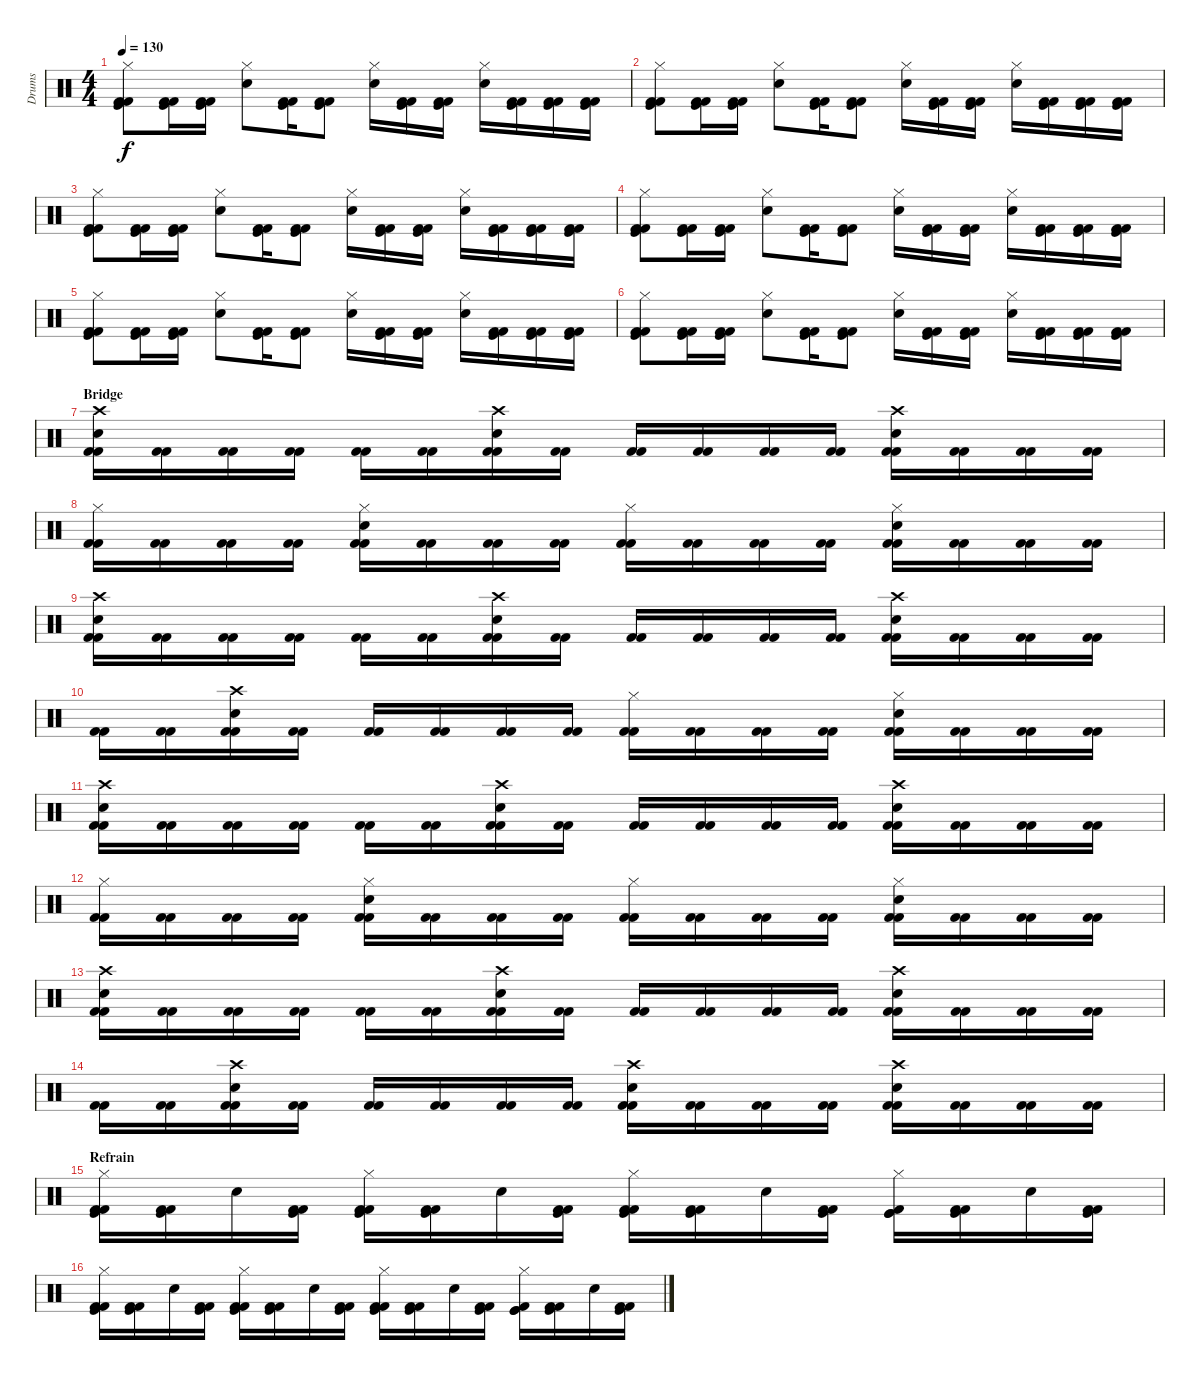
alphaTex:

\track ("Drums" "Drums") {instrument percussion}
\staff {score}
\articulation defaults
\ts (4 4)
\tempo 130
\clef neutral
\ks c
("Hi-Hat (closed)" "Kick (hit)" "Kick (hit) 2" "Kick (hit) 2").8{dy f} ("Kick (hit)" "Kick (hit) 2" "Kick (hit) 2").16 ("Kick (hit)" "Kick (hit) 2" "Kick (hit) 2").16 ("Hi-Hat (closed)" "Electric Snare (hit)").8 ("Kick (hit)" "Kick (hit) 2" "Kick (hit) 2").16 ("Kick (hit)" "Kick (hit) 2" "Kick (hit) 2").8 ("Hi-Hat (closed)" "Electric Snare (hit)").16 ("Kick (hit)" "Kick (hit) 2" "Kick (hit) 2").16 ("Kick (hit)" "Kick (hit) 2" "Kick (hit) 2").16 ("Hi-Hat (closed)" "Electric Snare (hit)").16 ("Kick (hit)" "Kick (hit) 2" "Kick (hit) 2").16 ("Kick (hit)" "Kick (hit) 2" "Kick (hit) 2").16 ("Kick (hit)" "Kick (hit) 2" "Kick (hit) 2").16 |
("Hi-Hat (closed)" "Kick (hit)" "Kick (hit) 2" "Kick (hit) 2").8 ("Kick (hit)" "Kick (hit) 2" "Kick (hit) 2").16 ("Kick (hit)" "Kick (hit) 2" "Kick (hit) 2").16 ("Hi-Hat (closed)" "Electric Snare (hit)").8 ("Kick (hit)" "Kick (hit) 2" "Kick (hit) 2").16 ("Kick (hit)" "Kick (hit) 2" "Kick (hit) 2").8 ("Hi-Hat (closed)" "Electric Snare (hit)").16 ("Kick (hit)" "Kick (hit) 2" "Kick (hit) 2").16 ("Kick (hit)" "Kick (hit) 2" "Kick (hit) 2").16 ("Hi-Hat (closed)" "Electric Snare (hit)").16 ("Kick (hit)" "Kick (hit) 2" "Kick (hit) 2").16 ("Kick (hit)" "Kick (hit) 2" "Kick (hit) 2").16 ("Kick (hit)" "Kick (hit) 2" "Kick (hit) 2").16 |
("Hi-Hat (closed)" "Kick (hit)" "Kick (hit) 2" "Kick (hit) 2").8 ("Kick (hit)" "Kick (hit) 2" "Kick (hit) 2").16 ("Kick (hit)" "Kick (hit) 2" "Kick (hit) 2").16 ("Hi-Hat (closed)" "Electric Snare (hit)").8 ("Kick (hit)" "Kick (hit) 2" "Kick (hit) 2").16 ("Kick (hit)" "Kick (hit) 2" "Kick (hit) 2").8 ("Hi-Hat (closed)" "Electric Snare (hit)").16 ("Kick (hit)" "Kick (hit) 2" "Kick (hit) 2").16 ("Kick (hit)" "Kick (hit) 2" "Kick (hit) 2").16 ("Hi-Hat (closed)" "Electric Snare (hit)").16 ("Kick (hit)" "Kick (hit) 2" "Kick (hit) 2").16 ("Kick (hit)" "Kick (hit) 2" "Kick (hit) 2").16 ("Kick (hit)" "Kick (hit) 2" "Kick (hit) 2").16 |
("Hi-Hat (closed)" "Kick (hit)" "Kick (hit) 2" "Kick (hit) 2").8 ("Kick (hit)" "Kick (hit) 2" "Kick (hit) 2").16 ("Kick (hit)" "Kick (hit) 2" "Kick (hit) 2").16 ("Hi-Hat (closed)" "Electric Snare (hit)").8 ("Kick (hit)" "Kick (hit) 2" "Kick (hit) 2").16 ("Kick (hit)" "Kick (hit) 2" "Kick (hit) 2").8 ("Hi-Hat (closed)" "Electric Snare (hit)").16 ("Kick (hit)" "Kick (hit) 2" "Kick (hit) 2").16 ("Kick (hit)" "Kick (hit) 2" "Kick (hit) 2").16 ("Hi-Hat (closed)" "Electric Snare (hit)").16 ("Kick (hit)" "Kick (hit) 2" "Kick (hit) 2").16 ("Kick (hit)" "Kick (hit) 2" "Kick (hit) 2").16 ("Kick (hit)" "Kick (hit) 2" "Kick (hit) 2").16 |
("Hi-Hat (closed)" "Kick (hit)" "Kick (hit) 2" "Kick (hit) 2").8 ("Kick (hit)" "Kick (hit) 2" "Kick (hit) 2").16 ("Kick (hit)" "Kick (hit) 2" "Kick (hit) 2").16 ("Hi-Hat (closed)" "Electric Snare (hit)").8 ("Kick (hit)" "Kick (hit) 2" "Kick (hit) 2").16 ("Kick (hit)" "Kick (hit) 2" "Kick (hit) 2").8 ("Hi-Hat (closed)" "Electric Snare (hit)").16 ("Kick (hit)" "Kick (hit) 2" "Kick (hit) 2").16 ("Kick (hit)" "Kick (hit) 2" "Kick (hit) 2").16 ("Hi-Hat (closed)" "Electric Snare (hit)").16 ("Kick (hit)" "Kick (hit) 2" "Kick (hit) 2").16 ("Kick (hit)" "Kick (hit) 2" "Kick (hit) 2").16 ("Kick (hit)" "Kick (hit) 2" "Kick (hit) 2").16 |
("Hi-Hat (closed)" "Kick (hit)" "Kick (hit) 2" "Kick (hit) 2").8 ("Kick (hit)" "Kick (hit) 2" "Kick (hit) 2").16 ("Kick (hit)" "Kick (hit) 2" "Kick (hit) 2").16 ("Hi-Hat (closed)" "Electric Snare (hit)").8 ("Kick (hit)" "Kick (hit) 2" "Kick (hit) 2").16 ("Kick (hit)" "Kick (hit) 2" "Kick (hit) 2").8 ("Hi-Hat (closed)" "Electric Snare (hit)").16 ("Kick (hit)" "Kick (hit) 2" "Kick (hit) 2").16 ("Kick (hit)" "Kick (hit) 2" "Kick (hit) 2").16 ("Hi-Hat (closed)" "Electric Snare (hit)").16 ("Kick (hit)" "Kick (hit) 2" "Kick (hit) 2").16 ("Kick (hit)" "Kick (hit) 2" "Kick (hit) 2").16 ("Kick (hit)" "Kick (hit) 2" "Kick (hit) 2").16 |
\section ("" "Bridge")
("Crash high (hit)" "Electric Snare (hit)" "Kick (hit) 2" "Kick (hit) 2").16 ("Kick (hit) 2" "Kick (hit) 2").16 ("Kick (hit) 2" "Kick (hit) 2").16 ("Kick (hit) 2" "Kick (hit) 2").16 ("Kick (hit) 2" "Kick (hit) 2").16 ("Kick (hit) 2" "Kick (hit) 2").16 ("Crash high (hit)" "Electric Snare (hit)" "Kick (hit) 2" "Kick (hit) 2").16 ("Kick (hit) 2" "Kick (hit) 2").16 ("Kick (hit) 2" "Kick (hit) 2").16 ("Kick (hit) 2" "Kick (hit) 2").16 ("Kick (hit) 2" "Kick (hit) 2").16 ("Kick (hit) 2" "Kick (hit) 2").16 ("Crash high (hit)" "Electric Snare (hit)" "Kick (hit) 2" "Kick (hit) 2").16 ("Kick (hit) 2" "Kick (hit) 2").16 ("Kick (hit) 2" "Kick (hit) 2").16 ("Kick (hit) 2" "Kick (hit) 2").16 |
("Hi-Hat (closed)" "Kick (hit) 2" "Kick (hit) 2").16 ("Kick (hit) 2" "Kick (hit) 2").16 ("Kick (hit) 2" "Kick (hit) 2").16 ("Kick (hit) 2" "Kick (hit) 2").16 ("Hi-Hat (closed)" "Electric Snare (hit)" "Kick (hit) 2" "Kick (hit) 2").16 ("Kick (hit) 2" "Kick (hit) 2").16 ("Kick (hit) 2" "Kick (hit) 2").16 ("Kick (hit) 2" "Kick (hit) 2").16 ("Hi-Hat (closed)" "Kick (hit) 2" "Kick (hit) 2").16 ("Kick (hit) 2" "Kick (hit) 2").16 ("Kick (hit) 2" "Kick (hit) 2").16 ("Kick (hit) 2" "Kick (hit) 2").16 ("Hi-Hat (closed)" "Electric Snare (hit)" "Kick (hit) 2" "Kick (hit) 2").16 ("Kick (hit) 2" "Kick (hit) 2").16 ("Kick (hit) 2" "Kick (hit) 2").16 ("Kick (hit) 2" "Kick (hit) 2").16 |
("Crash high (hit)" "Electric Snare (hit)" "Kick (hit) 2" "Kick (hit) 2").16 ("Kick (hit) 2" "Kick (hit) 2").16 ("Kick (hit) 2" "Kick (hit) 2").16 ("Kick (hit) 2" "Kick (hit) 2").16 ("Kick (hit) 2" "Kick (hit) 2").16 ("Kick (hit) 2" "Kick (hit) 2").16 ("Crash high (hit)" "Electric Snare (hit)" "Kick (hit) 2" "Kick (hit) 2").16 ("Kick (hit) 2" "Kick (hit) 2").16 ("Kick (hit) 2" "Kick (hit) 2").16 ("Kick (hit) 2" "Kick (hit) 2").16 ("Kick (hit) 2" "Kick (hit) 2").16 ("Kick (hit) 2" "Kick (hit) 2").16 ("Crash high (hit)" "Electric Snare (hit)" "Kick (hit) 2" "Kick (hit) 2").16 ("Kick (hit) 2" "Kick (hit) 2").16 ("Kick (hit) 2" "Kick (hit) 2").16 ("Kick (hit) 2" "Kick (hit) 2").16 |
("Kick (hit) 2" "Kick (hit) 2").16 ("Kick (hit) 2" "Kick (hit) 2").16 ("Crash high (hit)" "Electric Snare (hit)" "Kick (hit) 2" "Kick (hit) 2").16 ("Kick (hit) 2" "Kick (hit) 2").16 ("Kick (hit) 2" "Kick (hit) 2").16 ("Kick (hit) 2" "Kick (hit) 2").16 ("Kick (hit) 2" "Kick (hit) 2").16 ("Kick (hit) 2" "Kick (hit) 2").16 ("Hi-Hat (closed)" "Kick (hit) 2" "Kick (hit) 2").16 ("Kick (hit) 2" "Kick (hit) 2").16 ("Kick (hit) 2" "Kick (hit) 2").16 ("Kick (hit) 2" "Kick (hit) 2").16 ("Hi-Hat (closed)" "Electric Snare (hit)" "Kick (hit) 2" "Kick (hit) 2").16 ("Kick (hit) 2" "Kick (hit) 2").16 ("Kick (hit) 2" "Kick (hit) 2").16 ("Kick (hit) 2" "Kick (hit) 2").16 |
("Crash high (hit)" "Electric Snare (hit)" "Kick (hit) 2" "Kick (hit) 2").16 ("Kick (hit) 2" "Kick (hit) 2").16 ("Kick (hit) 2" "Kick (hit) 2").16 ("Kick (hit) 2" "Kick (hit) 2").16 ("Kick (hit) 2" "Kick (hit) 2").16 ("Kick (hit) 2" "Kick (hit) 2").16 ("Crash high (hit)" "Electric Snare (hit)" "Kick (hit) 2" "Kick (hit) 2").16 ("Kick (hit) 2" "Kick (hit) 2").16 ("Kick (hit) 2" "Kick (hit) 2").16 ("Kick (hit) 2" "Kick (hit) 2").16 ("Kick (hit) 2" "Kick (hit) 2").16 ("Kick (hit) 2" "Kick (hit) 2").16 ("Crash high (hit)" "Electric Snare (hit)" "Kick (hit) 2" "Kick (hit) 2").16 ("Kick (hit) 2" "Kick (hit) 2").16 ("Kick (hit) 2" "Kick (hit) 2").16 ("Kick (hit) 2" "Kick (hit) 2").16 |
("Hi-Hat (closed)" "Kick (hit) 2" "Kick (hit) 2").16 ("Kick (hit) 2" "Kick (hit) 2").16 ("Kick (hit) 2" "Kick (hit) 2").16 ("Kick (hit) 2" "Kick (hit) 2").16 ("Hi-Hat (closed)" "Electric Snare (hit)" "Kick (hit) 2" "Kick (hit) 2").16 ("Kick (hit) 2" "Kick (hit) 2").16 ("Kick (hit) 2" "Kick (hit) 2").16 ("Kick (hit) 2" "Kick (hit) 2").16 ("Hi-Hat (closed)" "Kick (hit) 2" "Kick (hit) 2").16 ("Kick (hit) 2" "Kick (hit) 2").16 ("Kick (hit) 2" "Kick (hit) 2").16 ("Kick (hit) 2" "Kick (hit) 2").16 ("Hi-Hat (closed)" "Electric Snare (hit)" "Kick (hit) 2" "Kick (hit) 2").16 ("Kick (hit) 2" "Kick (hit) 2").16 ("Kick (hit) 2" "Kick (hit) 2").16 ("Kick (hit) 2" "Kick (hit) 2").16 |
("Crash high (hit)" "Electric Snare (hit)" "Kick (hit) 2" "Kick (hit) 2").16 ("Kick (hit) 2" "Kick (hit) 2").16 ("Kick (hit) 2" "Kick (hit) 2").16 ("Kick (hit) 2" "Kick (hit) 2").16 ("Kick (hit) 2" "Kick (hit) 2").16 ("Kick (hit) 2" "Kick (hit) 2").16 ("Crash high (hit)" "Electric Snare (hit)" "Kick (hit) 2" "Kick (hit) 2").16 ("Kick (hit) 2" "Kick (hit) 2").16 ("Kick (hit) 2" "Kick (hit) 2").16 ("Kick (hit) 2" "Kick (hit) 2").16 ("Kick (hit) 2" "Kick (hit) 2").16 ("Kick (hit) 2" "Kick (hit) 2").16 ("Crash high (hit)" "Electric Snare (hit)" "Kick (hit) 2" "Kick (hit) 2").16 ("Kick (hit) 2" "Kick (hit) 2").16 ("Kick (hit) 2" "Kick (hit) 2").16 ("Kick (hit) 2" "Kick (hit) 2").16 |
("Kick (hit) 2" "Kick (hit) 2").16 ("Kick (hit) 2" "Kick (hit) 2").16 ("Crash high (hit)" "Electric Snare (hit)" "Kick (hit) 2" "Kick (hit) 2").16 ("Kick (hit) 2" "Kick (hit) 2").16 ("Kick (hit) 2" "Kick (hit) 2").16 ("Kick (hit) 2" "Kick (hit) 2").16 ("Kick (hit) 2" "Kick (hit) 2").16 ("Kick (hit) 2" "Kick (hit) 2").16 ("Crash high (hit)" "Electric Snare (hit)" "Kick (hit) 2" "Kick (hit) 2").16 ("Kick (hit) 2" "Kick (hit) 2").16 ("Kick (hit) 2" "Kick (hit) 2").16 ("Kick (hit) 2" "Kick (hit) 2").16 ("Crash high (hit)" "Electric Snare (hit)" "Kick (hit) 2" "Kick (hit) 2").16 ("Kick (hit) 2" "Kick (hit) 2").16 ("Kick (hit) 2" "Kick (hit) 2").16 ("Kick (hit) 2" "Kick (hit) 2").16 |
\section ("" "Refrain")
("Hi-Hat (closed)" "Kick (hit)" "Kick (hit) 2" "Kick (hit) 2").16 ("Kick (hit)" "Kick (hit) 2" "Kick (hit) 2").16 "Electric Snare (hit)".16 ("Kick (hit)" "Kick (hit) 2" "Kick (hit) 2").16 ("Hi-Hat (closed)" "Kick (hit)" "Kick (hit) 2" "Kick (hit) 2").16 ("Kick (hit)" "Kick (hit) 2" "Kick (hit) 2").16 "Electric Snare (hit)".16 ("Kick (hit)" "Kick (hit) 2" "Kick (hit) 2").16 ("Hi-Hat (closed)" "Kick (hit)" "Kick (hit) 2" "Kick (hit) 2").16 ("Kick (hit)" "Kick (hit) 2" "Kick (hit) 2").16 "Electric Snare (hit)".16 ("Kick (hit)" "Kick (hit) 2" "Kick (hit) 2").16 ("Hi-Hat (closed)" "Kick (hit)" "Kick (hit)" "Kick (hit) 2").16 ("Kick (hit)" "Kick (hit) 2" "Kick (hit) 2").16 "Electric Snare (hit)".16 ("Kick (hit)" "Kick (hit) 2" "Kick (hit) 2").16 |
("Hi-Hat (closed)" "Kick (hit)" "Kick (hit) 2" "Kick (hit) 2").16 ("Kick (hit)" "Kick (hit) 2" "Kick (hit) 2").16 "Electric Snare (hit)".16 ("Kick (hit)" "Kick (hit) 2" "Kick (hit) 2").16 ("Hi-Hat (closed)" "Kick (hit)" "Kick (hit) 2" "Kick (hit) 2").16 ("Kick (hit)" "Kick (hit) 2" "Kick (hit) 2").16 "Electric Snare (hit)".16 ("Kick (hit)" "Kick (hit) 2" "Kick (hit) 2").16 ("Hi-Hat (closed)" "Kick (hit)" "Kick (hit) 2" "Kick (hit) 2").16 ("Kick (hit)" "Kick (hit) 2" "Kick (hit) 2").16 "Electric Snare (hit)".16 ("Kick (hit)" "Kick (hit) 2" "Kick (hit) 2").16 ("Hi-Hat (closed)" "Kick (hit)" "Kick (hit)" "Kick (hit) 2").16 ("Kick (hit)" "Kick (hit) 2" "Kick (hit) 2").16 "Electric Snare (hit)".16 ("Kick (hit)" "Kick (hit) 2" "Kick (hit) 2").16
